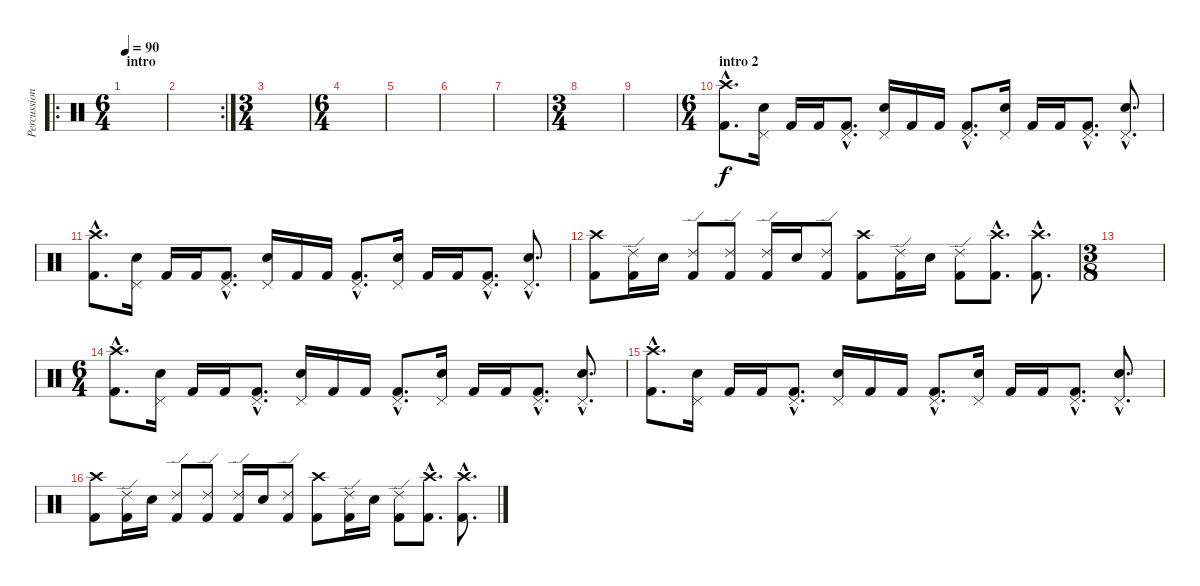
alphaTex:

\track ("Percussion" "Percussion") {instrument percussion}
\staff {score}
\articulation defaults
\ro
\ts (6 4)
\section ("" "intro")
\tempo 90
\clef neutral
\ks c
|
\rc 2
|
\ts (3 4)
|
\ts (6 4)
|
|
|
|
\ts (3 4)
|
|
\ts (6 4)
\section ("" "intro 2")
("Kick (hit) 2"{hac} "Crash high (hit)"{hac}).8{d} ("Electric Snare (hit)" "Pedal Hi-Hat (hit)").16 "Kick (hit) 2".16 "Kick (hit) 2".16 ("Kick (hit) 2"{hac} "Pedal Hi-Hat (hit)"{hac}).8{d} ("Electric Snare (hit)" "Pedal Hi-Hat (hit)").16 "Kick (hit) 2".16 "Kick (hit) 2".16 ("Kick (hit) 2"{hac} "Pedal Hi-Hat (hit)"{hac}).8{d} ("Electric Snare (hit)" "Pedal Hi-Hat (hit)").16 "Kick (hit) 2".16 "Kick (hit) 2".16 ("Kick (hit) 2"{hac} "Pedal Hi-Hat (hit)"{hac}).8{d} ("Electric Snare (hit)"{hac} "Pedal Hi-Hat (hit)"{hac}).8{d} |
("Kick (hit) 2"{hac} "Crash high (hit)"{hac}).8{d} ("Electric Snare (hit)" "Pedal Hi-Hat (hit)").16 "Kick (hit) 2".16 "Kick (hit) 2".16 ("Kick (hit) 2"{hac} "Pedal Hi-Hat (hit)"{hac}).8{d} ("Electric Snare (hit)" "Pedal Hi-Hat (hit)").16 "Kick (hit) 2".16 "Kick (hit) 2".16 ("Kick (hit) 2"{hac} "Pedal Hi-Hat (hit)"{hac}).8{d} ("Electric Snare (hit)" "Pedal Hi-Hat (hit)").16 "Kick (hit) 2".16 "Kick (hit) 2".16 ("Kick (hit) 2"{hac} "Pedal Hi-Hat (hit)"{hac}).8{d} ("Electric Snare (hit)"{hac} "Pedal Hi-Hat (hit)"{hac}).8{d} |
("Kick (hit) 2" "Crash high (hit)").8 ("Kick (hit) 2" "Ride (edge) 2").16 "Electric Snare (hit)".16 ("Kick (hit) 2" "Ride (edge) 2").8 ("Kick (hit) 2" "Ride (edge) 2").8 ("Kick (hit) 2" "Ride (edge) 2").16 "Electric Snare (hit)".16 ("Kick (hit) 2" "Ride (edge) 2").8 ("Kick (hit) 2" "Crash high (hit)").8 ("Kick (hit) 2" "Ride (edge) 2").16 "Electric Snare (hit)".16 ("Kick (hit) 2" "Ride (edge) 2").8 ("Kick (hit) 2"{hac} "Crash high (hit)"{hac}).8{d} ("Kick (hit) 2"{hac} "Crash high (hit)"{hac}).8{d} |
\ts (3 8)
|
\ts (6 4)
("Kick (hit) 2"{hac} "Crash high (hit)"{hac}).8{d} ("Electric Snare (hit)" "Pedal Hi-Hat (hit)").16 "Kick (hit) 2".16 "Kick (hit) 2".16 ("Kick (hit) 2"{hac} "Pedal Hi-Hat (hit)"{hac}).8{d} ("Electric Snare (hit)" "Pedal Hi-Hat (hit)").16 "Kick (hit) 2".16 "Kick (hit) 2".16 ("Kick (hit) 2"{hac} "Pedal Hi-Hat (hit)"{hac}).8{d} ("Electric Snare (hit)" "Pedal Hi-Hat (hit)").16 "Kick (hit) 2".16 "Kick (hit) 2".16 ("Kick (hit) 2"{hac} "Pedal Hi-Hat (hit)"{hac}).8{d} ("Electric Snare (hit)"{hac} "Pedal Hi-Hat (hit)"{hac}).8{d} |
("Kick (hit) 2"{hac} "Crash high (hit)"{hac}).8{d} ("Electric Snare (hit)" "Pedal Hi-Hat (hit)").16 "Kick (hit) 2".16 "Kick (hit) 2".16 ("Kick (hit) 2"{hac} "Pedal Hi-Hat (hit)"{hac}).8{d} ("Electric Snare (hit)" "Pedal Hi-Hat (hit)").16 "Kick (hit) 2".16 "Kick (hit) 2".16 ("Kick (hit) 2"{hac} "Pedal Hi-Hat (hit)"{hac}).8{d} ("Electric Snare (hit)" "Pedal Hi-Hat (hit)").16 "Kick (hit) 2".16 "Kick (hit) 2".16 ("Kick (hit) 2"{hac} "Pedal Hi-Hat (hit)"{hac}).8{d} ("Electric Snare (hit)"{hac} "Pedal Hi-Hat (hit)"{hac}).8{d} |
("Kick (hit) 2" "Crash high (hit)").8 ("Kick (hit) 2" "Ride (edge) 2").16 "Electric Snare (hit)".16 ("Kick (hit) 2" "Ride (edge) 2").8 ("Kick (hit) 2" "Ride (edge) 2").8 ("Kick (hit) 2" "Ride (edge) 2").16 "Electric Snare (hit)".16 ("Kick (hit) 2" "Ride (edge) 2").8 ("Kick (hit) 2" "Crash high (hit)").8 ("Kick (hit) 2" "Ride (edge) 2").16 "Electric Snare (hit)".16 ("Kick (hit) 2" "Ride (edge) 2").8 ("Kick (hit) 2"{hac} "Crash high (hit)"{hac}).8{d} ("Kick (hit) 2"{hac} "Crash high (hit)"{hac}).8{d}
